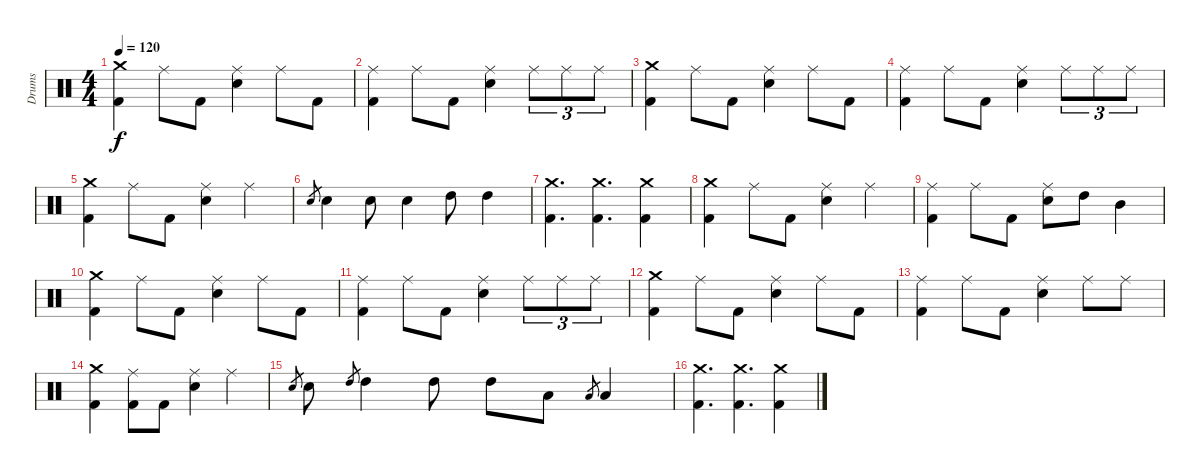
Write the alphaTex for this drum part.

\track ("Drums" "Drums") {instrument percussion}
\staff {score}
\articulation defaults
\ts (4 4)
\tempo 120
\clef neutral
\ks c
("Crash medium (hit)" "Kick (hit) 2").4{dy f} "Ride (middle)".8 "Kick (hit) 2".8 ("Ride (middle)" "Snare (hit) 2").4 "Ride (middle)".8 "Kick (hit) 2".8 |
("Ride (middle)" "Kick (hit) 2").4 "Ride (middle)".8 "Kick (hit) 2".8 ("Ride (middle)" "Snare (hit) 2").4 "Ride (middle)".8{tu (3 2)} "Ride (middle)".8{tu (3 2)} "Ride (middle)".8{tu (3 2)} |
("Crash medium (hit)" "Kick (hit) 2").4 "Ride (middle)".8 "Kick (hit) 2".8 ("Ride (middle)" "Snare (hit) 2").4 "Ride (middle)".8 "Kick (hit) 2".8 |
("Ride (middle)" "Kick (hit) 2").4 "Ride (middle)".8 "Kick (hit) 2".8 ("Ride (middle)" "Snare (hit) 2").4 "Ride (middle)".8{tu (3 2)} "Ride (middle)".8{tu (3 2)} "Ride (middle)".8{tu (3 2)} |
("Crash medium (hit)" "Kick (hit) 2").4 "Ride (middle)".8 "Kick (hit) 2".8 ("Ride (middle)" "Snare (hit) 2").4 "Ride (middle)".4 |
"Snare (hit) 2".8{gr} "Snare (hit) 2".4 "Snare (hit) 2".8 "Snare (hit) 2".4 "High Tom (hit)".8 "High Tom (hit)".4 |
("Crash medium (hit)" "Kick (hit) 2").4{d} ("Crash medium (hit)" "Kick (hit) 2").4{d} ("Crash medium (hit)" "Kick (hit) 2").4 |
("Crash medium (hit)" "Kick (hit) 2").4 "Ride (middle)".8 "Kick (hit) 2".8 ("Ride (middle)" "Snare (hit) 2").4 "Ride (middle)".4 |
("Ride (middle)" "Kick (hit) 2").4 "Ride (middle)".8 "Kick (hit) 2".8 ("Ride (middle)" "Snare (hit) 2").8 "High Tom (hit)".8 "Mid Tom (hit)".4 |
("Crash medium (hit)" "Kick (hit) 2").4 "Ride (middle)".8 "Kick (hit) 2".8 ("Ride (middle)" "Snare (hit) 2").4 "Ride (middle)".8 "Kick (hit) 2".8 |
("Ride (middle)" "Kick (hit) 2").4 "Ride (middle)".8 "Kick (hit) 2".8 ("Ride (middle)" "Snare (hit) 2").4 "Ride (middle)".8{tu (3 2)} "Ride (middle)".8{tu (3 2)} "Ride (middle)".8{tu (3 2)} |
("Crash medium (hit)" "Kick (hit) 2").4 "Ride (middle)".8 "Kick (hit) 2".8 ("Ride (middle)" "Snare (hit) 2").4 "Ride (middle)".8 "Kick (hit) 2".8 |
("Ride (middle)" "Kick (hit) 2").4 "Ride (middle)".8 "Kick (hit) 2".8 ("Ride (middle)" "Snare (hit) 2").4 "Ride (middle)".8 "Ride (middle)".8 |
("Crash medium (hit)" "Kick (hit) 2").4 ("Ride (middle)" "Kick (hit) 2").8 "Kick (hit) 2".8 ("Ride (middle)" "Snare (hit) 2").4 "Ride (middle)".4 |
"Snare (hit) 2".8{gr} "Snare (hit) 2".8 "High Tom (hit)".8{gr} "High Tom (hit)".4 "High Tom (hit)".8 "High Tom (hit)".8 "Low Tom (hit)".8 "Low Tom (hit)".8{gr} "Low Tom (hit)".4 |
("Crash medium (hit)" "Kick (hit) 2").4{d} ("Crash medium (hit)" "Kick (hit) 2").4{d} ("Crash medium (hit)" "Kick (hit) 2").4
